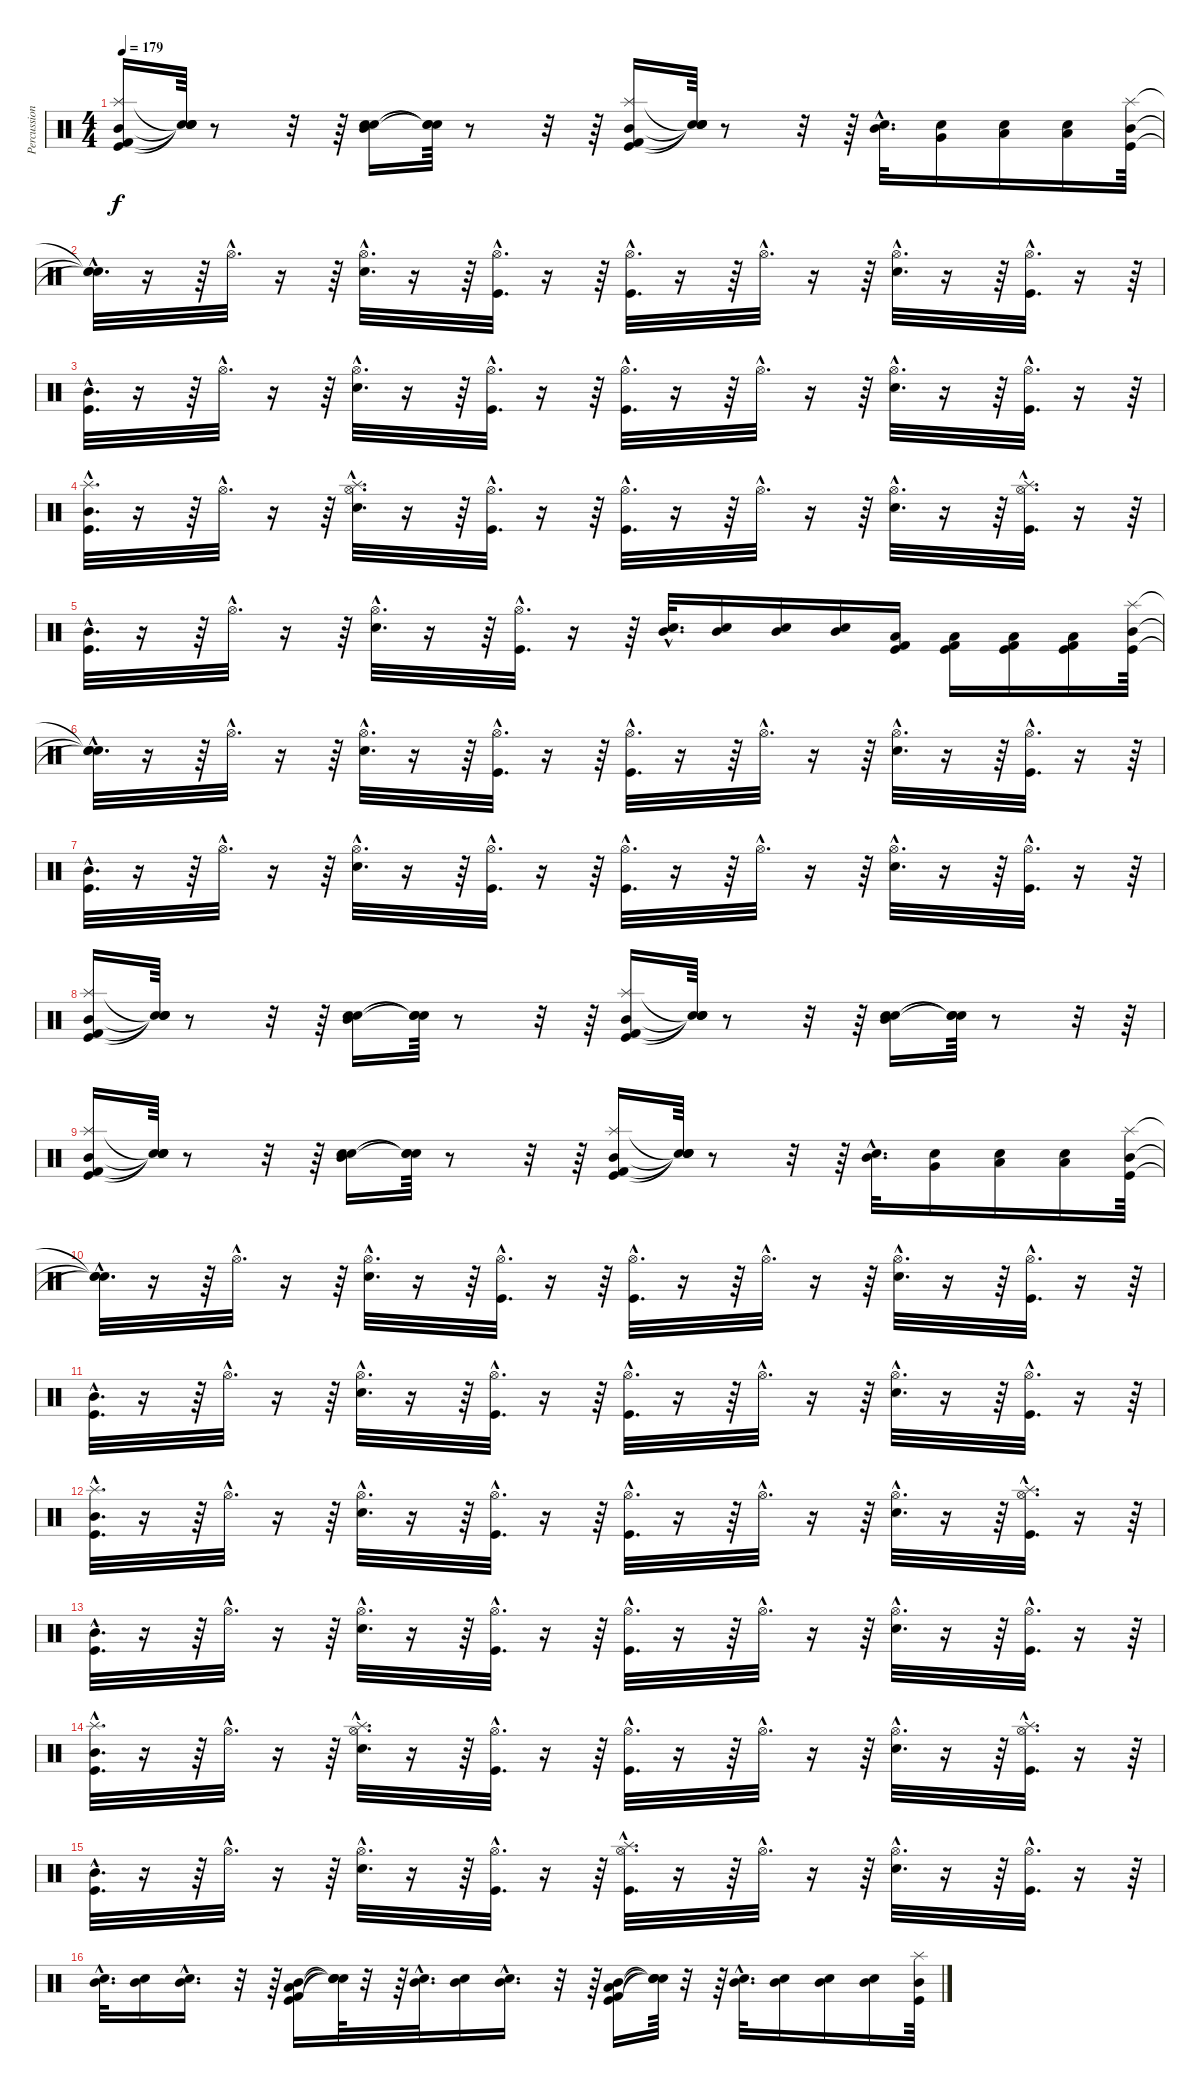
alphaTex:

\track ("Percussion" "Percussion") {instrument percussion}
\staff {score}
\articulation defaults
\ts (4 4)
\tempo 179
\clef neutral
\ks c
("Mid Tom (hit)" "Kick (hit)" "Splash (hit)" "Kick (hit) 2").16{dy f} ("Snare (hit)"{t} "Snare (hit)"{t} "Snare (hit)"{t} "Snare (hit)"{t}).64 r.8 r.32 r.64 ("Mid Tom (hit)" "Snare (hit) 2" "Electric Snare (hit)").16 ("Snare (hit)"{t} "Snare (hit)"{t} "Snare (hit)"{t}).64 r.8 r.32 r.64 ("Mid Tom (hit)" "Kick (hit)" "Splash (hit)" "Kick (hit) 2").16 ("Snare (hit)"{t} "Snare (hit)"{t} "Snare (hit)"{t} "Snare (hit)"{t}).64 r.8 r.32 r.64 ("Electric Snare (hit)"{hac} "Mid Tom (hit)"{hac}).32{d} ("Electric Snare (hit)" "Very Low Tom (hit)").16 ("Electric Snare (hit)" "Low Tom (hit)").16 ("Electric Snare (hit)" "Low Tom (hit)").16 ("Splash (hit)" "Mid Tom (hit)" "Kick (hit)").64 |
("Snare (hit)"{hac t} "Snare (hit)"{hac t} "Snare (hit)"{hac t}).32{d} r.16 r.64 "Hi-Hat (open)"{hac}.32{d} r.16 r.64 ("Hi-Hat (open)"{hac} "Snare (hit) 2"{hac}).32{d} r.16 r.64 ("Hi-Hat (open)"{hac} "Kick (hit)"{hac}).32{d} r.16 r.64 ("Hi-Hat (open)"{hac} "Kick (hit)"{hac}).32{d} r.16 r.64 "Hi-Hat (open)"{hac}.32{d} r.16 r.64 ("Hi-Hat (open)"{hac} "Snare (hit) 2"{hac}).32{d} r.16 r.64 ("Hi-Hat (open)"{hac} "Kick (hit)"{hac}).32{d} r.16 r.64 |
("Mid Tom (hit)"{hac} "Kick (hit)"{hac}).32{d} r.16 r.64 "Hi-Hat (open)"{hac}.32{d} r.16 r.64 ("Hi-Hat (open)"{hac} "Snare (hit) 2"{hac}).32{d} r.16 r.64 ("Hi-Hat (open)"{hac} "Kick (hit)"{hac}).32{d} r.16 r.64 ("Hi-Hat (open)"{hac} "Kick (hit)"{hac}).32{d} r.16 r.64 "Hi-Hat (open)"{hac}.32{d} r.16 r.64 ("Hi-Hat (open)"{hac} "Snare (hit) 2"{hac}).32{d} r.16 r.64 ("Hi-Hat (open)"{hac} "Kick (hit)"{hac}).32{d} r.16 r.64 |
("Splash (hit)"{hac} "Mid Tom (hit)"{hac} "Kick (hit)"{hac}).32{d} r.16 r.64 "Hi-Hat (open)"{hac}.32{d} r.16 r.64 ("Splash (hit)"{hac} "Hi-Hat (open)"{hac} "Snare (hit) 2"{hac}).32{d} r.16 r.64 ("Hi-Hat (open)"{hac} "Kick (hit)"{hac}).32{d} r.16 r.64 ("Hi-Hat (open)"{hac} "Kick (hit)"{hac}).32{d} r.16 r.64 "Hi-Hat (open)"{hac}.32{d} r.16 r.64 ("Hi-Hat (open)"{hac} "Snare (hit) 2"{hac}).32{d} r.16 r.64 ("Splash (hit)"{hac} "Hi-Hat (open)"{hac} "Kick (hit)"{hac}).32{d} r.16 r.64 |
("Mid Tom (hit)"{hac} "Kick (hit)"{hac}).32{d} r.16 r.64 "Hi-Hat (open)"{hac}.32{d} r.16 r.64 ("Hi-Hat (open)"{hac} "Snare (hit) 2"{hac}).32{d} r.16 r.64 ("Hi-Hat (open)"{hac} "Kick (hit)"{hac}).32{d} r.16 r.64 ("Snare (hit) 2"{hac} "Mid Tom (hit)"{hac}).32{d} ("Snare (hit) 2" "Mid Tom (hit)").16 ("Snare (hit) 2" "Mid Tom (hit)").16 ("Snare (hit) 2" "Mid Tom (hit)").16 ("Kick (hit)" "Low Floor Tom (hit)" "Kick (hit) 2").16 ("Kick (hit)" "Low Floor Tom (hit)" "Kick (hit) 2").16 ("Kick (hit)" "Low Floor Tom (hit)" "Kick (hit) 2").16 ("Kick (hit)" "Low Floor Tom (hit)" "Kick (hit) 2").16 ("Splash (hit)" "Mid Tom (hit)" "Kick (hit)").64 |
("Snare (hit)"{hac t} "Snare (hit)"{hac t} "Snare (hit)"{hac t}).32{d} r.16 r.64 "Hi-Hat (open)"{hac}.32{d} r.16 r.64 ("Hi-Hat (open)"{hac} "Snare (hit) 2"{hac}).32{d} r.16 r.64 ("Hi-Hat (open)"{hac} "Kick (hit)"{hac}).32{d} r.16 r.64 ("Hi-Hat (open)"{hac} "Kick (hit)"{hac}).32{d} r.16 r.64 "Hi-Hat (open)"{hac}.32{d} r.16 r.64 ("Hi-Hat (open)"{hac} "Snare (hit) 2"{hac}).32{d} r.16 r.64 ("Hi-Hat (open)"{hac} "Kick (hit)"{hac}).32{d} r.16 r.64 |
("Mid Tom (hit)"{hac} "Kick (hit)"{hac}).32{d} r.16 r.64 "Hi-Hat (open)"{hac}.32{d} r.16 r.64 ("Hi-Hat (open)"{hac} "Snare (hit) 2"{hac}).32{d} r.16 r.64 ("Hi-Hat (open)"{hac} "Kick (hit)"{hac}).32{d} r.16 r.64 ("Hi-Hat (open)"{hac} "Kick (hit)"{hac}).32{d} r.16 r.64 "Hi-Hat (open)"{hac}.32{d} r.16 r.64 ("Hi-Hat (open)"{hac} "Snare (hit) 2"{hac}).32{d} r.16 r.64 ("Hi-Hat (open)"{hac} "Kick (hit)"{hac}).32{d} r.16 r.64 |
("Mid Tom (hit)" "Kick (hit)" "Splash (hit)" "Kick (hit) 2").16 ("Snare (hit)"{t} "Snare (hit)"{t} "Snare (hit)"{t} "Snare (hit)"{t}).64 r.8 r.32 r.64 ("Mid Tom (hit)" "Snare (hit) 2" "Electric Snare (hit)").16 ("Snare (hit)"{t} "Snare (hit)"{t} "Snare (hit)"{t}).64 r.8 r.32 r.64 ("Mid Tom (hit)" "Kick (hit)" "Splash (hit)" "Kick (hit) 2").16 ("Snare (hit)"{t} "Snare (hit)"{t} "Snare (hit)"{t} "Snare (hit)"{t}).64 r.8 r.32 r.64 ("Mid Tom (hit)" "Snare (hit) 2" "Electric Snare (hit)").16 ("Snare (hit)"{t} "Snare (hit)"{t} "Snare (hit)"{t}).64 r.8 r.32 r.64 |
("Mid Tom (hit)" "Kick (hit)" "Splash (hit)" "Kick (hit) 2").16 ("Snare (hit)"{t} "Snare (hit)"{t} "Snare (hit)"{t} "Snare (hit)"{t}).64 r.8 r.32 r.64 ("Mid Tom (hit)" "Snare (hit) 2" "Electric Snare (hit)").16 ("Snare (hit)"{t} "Snare (hit)"{t} "Snare (hit)"{t}).64 r.8 r.32 r.64 ("Mid Tom (hit)" "Kick (hit)" "Splash (hit)" "Kick (hit) 2").16 ("Snare (hit)"{t} "Snare (hit)"{t} "Snare (hit)"{t} "Snare (hit)"{t}).64 r.8 r.32 r.64 ("Electric Snare (hit)"{hac} "Mid Tom (hit)"{hac}).32{d} ("Electric Snare (hit)" "Very Low Tom (hit)").16 ("Electric Snare (hit)" "Low Tom (hit)").16 ("Electric Snare (hit)" "Low Tom (hit)").16 ("Splash (hit)" "Mid Tom (hit)" "Kick (hit)").64 |
("Snare (hit)"{hac t} "Snare (hit)"{hac t} "Snare (hit)"{hac t}).32{d} r.16 r.64 "Hi-Hat (open)"{hac}.32{d} r.16 r.64 ("Hi-Hat (open)"{hac} "Snare (hit) 2"{hac}).32{d} r.16 r.64 ("Hi-Hat (open)"{hac} "Kick (hit)"{hac}).32{d} r.16 r.64 ("Hi-Hat (open)"{hac} "Kick (hit)"{hac}).32{d} r.16 r.64 "Hi-Hat (open)"{hac}.32{d} r.16 r.64 ("Hi-Hat (open)"{hac} "Snare (hit) 2"{hac}).32{d} r.16 r.64 ("Hi-Hat (open)"{hac} "Kick (hit)"{hac}).32{d} r.16 r.64 |
("Mid Tom (hit)"{hac} "Kick (hit)"{hac}).32{d} r.16 r.64 "Hi-Hat (open)"{hac}.32{d} r.16 r.64 ("Hi-Hat (open)"{hac} "Snare (hit) 2"{hac}).32{d} r.16 r.64 ("Hi-Hat (open)"{hac} "Kick (hit)"{hac}).32{d} r.16 r.64 ("Hi-Hat (open)"{hac} "Kick (hit)"{hac}).32{d} r.16 r.64 "Hi-Hat (open)"{hac}.32{d} r.16 r.64 ("Hi-Hat (open)"{hac} "Snare (hit) 2"{hac}).32{d} r.16 r.64 ("Hi-Hat (open)"{hac} "Kick (hit)"{hac}).32{d} r.16 r.64 |
("Splash (hit)"{hac} "Mid Tom (hit)"{hac} "Kick (hit)"{hac}).32{d} r.16 r.64 "Hi-Hat (open)"{hac}.32{d} r.16 r.64 ("Hi-Hat (open)"{hac} "Snare (hit) 2"{hac}).32{d} r.16 r.64 ("Hi-Hat (open)"{hac} "Kick (hit)"{hac}).32{d} r.16 r.64 ("Hi-Hat (open)"{hac} "Kick (hit)"{hac}).32{d} r.16 r.64 "Hi-Hat (open)"{hac}.32{d} r.16 r.64 ("Hi-Hat (open)"{hac} "Snare (hit) 2"{hac}).32{d} r.16 r.64 ("Splash (hit)"{hac} "Hi-Hat (open)"{hac} "Kick (hit)"{hac}).32{d} r.16 r.64 |
("Mid Tom (hit)"{hac} "Kick (hit)"{hac}).32{d} r.16 r.64 "Hi-Hat (open)"{hac}.32{d} r.16 r.64 ("Hi-Hat (open)"{hac} "Snare (hit) 2"{hac}).32{d} r.16 r.64 ("Hi-Hat (open)"{hac} "Kick (hit)"{hac}).32{d} r.16 r.64 ("Hi-Hat (open)"{hac} "Kick (hit)"{hac}).32{d} r.16 r.64 "Hi-Hat (open)"{hac}.32{d} r.16 r.64 ("Hi-Hat (open)"{hac} "Snare (hit) 2"{hac}).32{d} r.16 r.64 ("Hi-Hat (open)"{hac} "Kick (hit)"{hac}).32{d} r.16 r.64 |
("Splash (hit)"{hac} "Mid Tom (hit)"{hac} "Kick (hit)"{hac}).32{d} r.16 r.64 "Hi-Hat (open)"{hac}.32{d} r.16 r.64 ("Splash (hit)"{hac} "Hi-Hat (open)"{hac} "Snare (hit) 2"{hac}).32{d} r.16 r.64 ("Hi-Hat (open)"{hac} "Kick (hit)"{hac}).32{d} r.16 r.64 ("Hi-Hat (open)"{hac} "Kick (hit)"{hac}).32{d} r.16 r.64 "Hi-Hat (open)"{hac}.32{d} r.16 r.64 ("Hi-Hat (open)"{hac} "Snare (hit) 2"{hac}).32{d} r.16 r.64 ("Splash (hit)"{hac} "Hi-Hat (open)"{hac} "Kick (hit)"{hac}).32{d} r.16 r.64 |
("Mid Tom (hit)"{hac} "Kick (hit)"{hac}).32{d} r.16 r.64 "Hi-Hat (open)"{hac}.32{d} r.16 r.64 ("Hi-Hat (open)"{hac} "Snare (hit) 2"{hac}).32{d} r.16 r.64 ("Hi-Hat (open)"{hac} "Kick (hit)"{hac}).32{d} r.16 r.64 ("Splash (hit)"{hac} "Hi-Hat (open)"{hac} "Kick (hit)"{hac}).32{d} r.16 r.64 "Hi-Hat (open)"{hac}.32{d} r.16 r.64 ("Hi-Hat (open)"{hac} "Snare (hit) 2"{hac}).32{d} r.16 r.64 ("Hi-Hat (open)"{hac} "Kick (hit)"{hac}).32{d} r.16 r.64 |
("Mid Tom (hit)"{hac} "Snare (hit) 2"{hac}).32{d} ("Mid Tom (hit)" "Snare (hit) 2").16 ("Mid Tom (hit)"{hac} "Snare (hit) 2"{hac}).16{d} r.32 r.64 ("Mid Tom (hit)" "Kick (hit)" "Kick (hit) 2" "Low Tom (hit)").16 ("Snare (hit)"{t} "Snare (hit)"{t} "Snare (hit)"{t} "Snare (hit)"{t}).64 r.32 r.64 ("Mid Tom (hit)"{hac} "Snare (hit) 2"{hac}).32{d} ("Mid Tom (hit)" "Snare (hit) 2").16 ("Mid Tom (hit)"{hac} "Snare (hit) 2"{hac}).16{d} r.32 r.64 ("Mid Tom (hit)" "Kick (hit)" "Kick (hit) 2" "Low Tom (hit)").16 ("Snare (hit)"{t} "Snare (hit)"{t} "Snare (hit)"{t} "Snare (hit)"{t}).64 r.32 r.64 ("Snare (hit) 2"{hac} "Mid Tom (hit)"{hac}).32{d} ("Snare (hit) 2" "Mid Tom (hit)").16 ("Snare (hit) 2" "Mid Tom (hit)").16 ("Snare (hit) 2" "Mid Tom (hit)").16 ("Splash (hit)" "Mid Tom (hit)" "Kick (hit)").64
